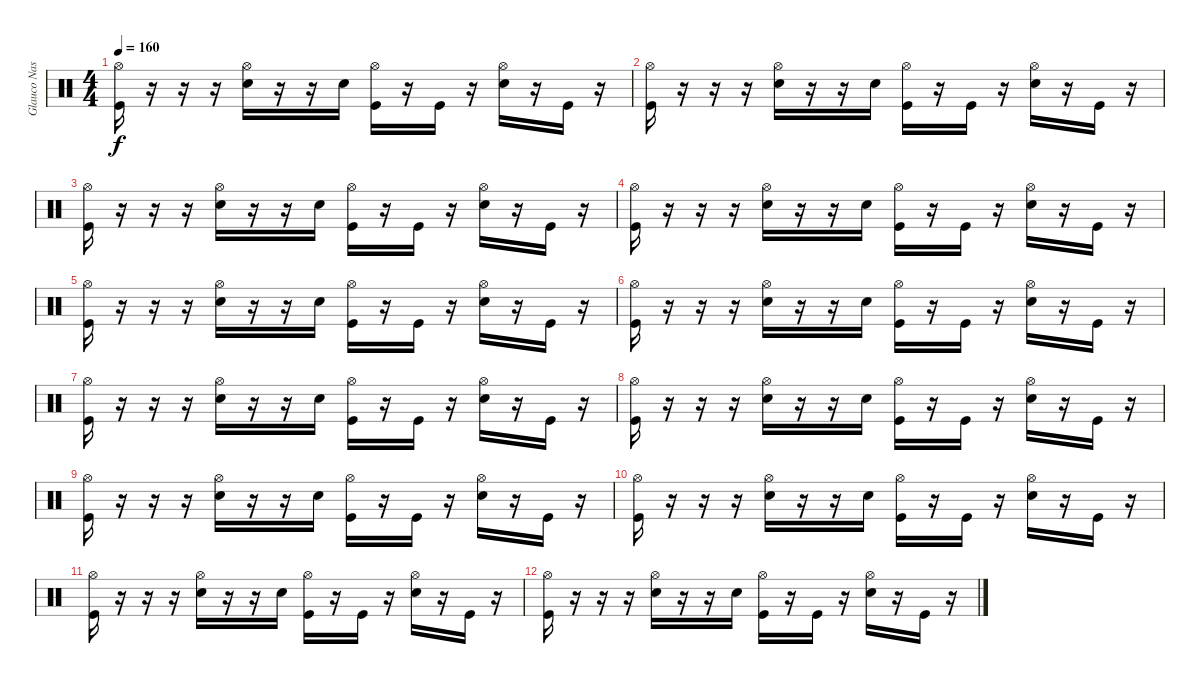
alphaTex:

\track ("Glauco Nastácia" "Glauco Nas") {instrument percussion}
\staff {score}
\articulation defaults
\ts (4 4)
\tempo 160
\clef neutral
\ks c
("Hi-Hat (open)" "Kick (hit)").16{dy f} r.16 r.16 r.16 ("Hi-Hat (open)" "Electric Snare (hit)").16 r.16 r.16 "Electric Snare (hit)".16 ("Hi-Hat (open)" "Kick (hit)").16 r.16 "Kick (hit)".16 r.16 ("Hi-Hat (open)" "Electric Snare (hit)").16 r.16 "Kick (hit)".16 r.16 |
("Hi-Hat (open)" "Kick (hit)").16 r.16 r.16 r.16 ("Hi-Hat (open)" "Electric Snare (hit)").16 r.16 r.16 "Electric Snare (hit)".16 ("Hi-Hat (open)" "Kick (hit)").16 r.16 "Kick (hit)".16 r.16 ("Hi-Hat (open)" "Electric Snare (hit)").16 r.16 "Kick (hit)".16 r.16 |
("Hi-Hat (open)" "Kick (hit)").16 r.16 r.16 r.16 ("Hi-Hat (open)" "Electric Snare (hit)").16 r.16 r.16 "Electric Snare (hit)".16 ("Hi-Hat (open)" "Kick (hit)").16 r.16 "Kick (hit)".16 r.16 ("Hi-Hat (open)" "Electric Snare (hit)").16 r.16 "Kick (hit)".16 r.16 |
("Hi-Hat (open)" "Kick (hit)").16 r.16 r.16 r.16 ("Hi-Hat (open)" "Electric Snare (hit)").16 r.16 r.16 "Electric Snare (hit)".16 ("Hi-Hat (open)" "Kick (hit)").16 r.16 "Kick (hit)".16 r.16 ("Hi-Hat (open)" "Electric Snare (hit)").16 r.16 "Kick (hit)".16 r.16 |
("Hi-Hat (open)" "Kick (hit)").16 r.16 r.16 r.16 ("Hi-Hat (open)" "Electric Snare (hit)").16 r.16 r.16 "Electric Snare (hit)".16 ("Hi-Hat (open)" "Kick (hit)").16 r.16 "Kick (hit)".16 r.16 ("Hi-Hat (open)" "Electric Snare (hit)").16 r.16 "Kick (hit)".16 r.16 |
("Hi-Hat (open)" "Kick (hit)").16 r.16 r.16 r.16 ("Hi-Hat (open)" "Electric Snare (hit)").16 r.16 r.16 "Electric Snare (hit)".16 ("Hi-Hat (open)" "Kick (hit)").16 r.16 "Kick (hit)".16 r.16 ("Hi-Hat (open)" "Electric Snare (hit)").16 r.16 "Kick (hit)".16 r.16 |
("Hi-Hat (open)" "Kick (hit)").16 r.16 r.16 r.16 ("Hi-Hat (open)" "Electric Snare (hit)").16 r.16 r.16 "Electric Snare (hit)".16 ("Hi-Hat (open)" "Kick (hit)").16 r.16 "Kick (hit)".16 r.16 ("Hi-Hat (open)" "Electric Snare (hit)").16 r.16 "Kick (hit)".16 r.16 |
("Hi-Hat (open)" "Kick (hit)").16 r.16 r.16 r.16 ("Hi-Hat (open)" "Electric Snare (hit)").16 r.16 r.16 "Electric Snare (hit)".16 ("Hi-Hat (open)" "Kick (hit)").16 r.16 "Kick (hit)".16 r.16 ("Hi-Hat (open)" "Electric Snare (hit)").16 r.16 "Kick (hit)".16 r.16 |
("Hi-Hat (open)" "Kick (hit)").16 r.16 r.16 r.16 ("Hi-Hat (open)" "Electric Snare (hit)").16 r.16 r.16 "Electric Snare (hit)".16 ("Hi-Hat (open)" "Kick (hit)").16 r.16 "Kick (hit)".16 r.16 ("Hi-Hat (open)" "Electric Snare (hit)").16 r.16 "Kick (hit)".16 r.16 |
("Hi-Hat (open)" "Kick (hit)").16 r.16 r.16 r.16 ("Hi-Hat (open)" "Electric Snare (hit)").16 r.16 r.16 "Electric Snare (hit)".16 ("Hi-Hat (open)" "Kick (hit)").16 r.16 "Kick (hit)".16 r.16 ("Hi-Hat (open)" "Electric Snare (hit)").16 r.16 "Kick (hit)".16 r.16 |
("Hi-Hat (open)" "Kick (hit)").16 r.16 r.16 r.16 ("Hi-Hat (open)" "Electric Snare (hit)").16 r.16 r.16 "Electric Snare (hit)".16 ("Hi-Hat (open)" "Kick (hit)").16 r.16 "Kick (hit)".16 r.16 ("Hi-Hat (open)" "Electric Snare (hit)").16 r.16 "Kick (hit)".16 r.16 |
("Hi-Hat (open)" "Kick (hit)").16 r.16 r.16 r.16 ("Hi-Hat (open)" "Electric Snare (hit)").16 r.16 r.16 "Electric Snare (hit)".16 ("Hi-Hat (open)" "Kick (hit)").16 r.16 "Kick (hit)".16 r.16 ("Hi-Hat (open)" "Electric Snare (hit)").16 r.16 "Kick (hit)".16 r.16
